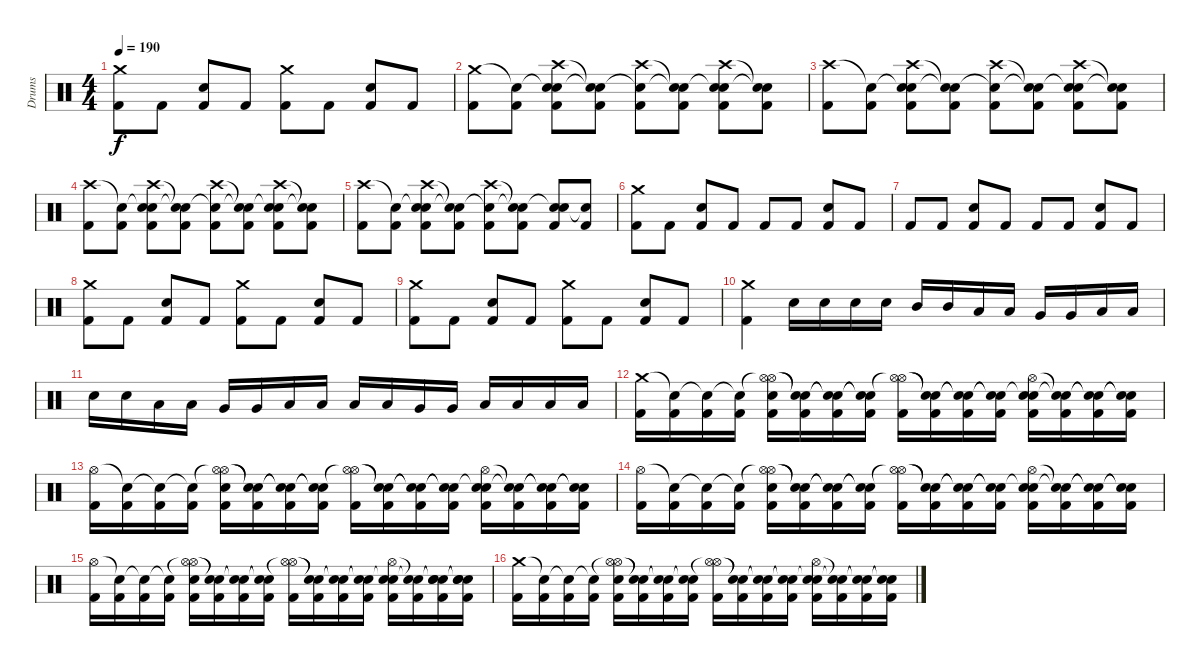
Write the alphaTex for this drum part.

\track ("Drums" "Drums") {instrument percussion}
\staff {score}
\articulation defaults
\ts (4 4)
\tempo 190
\clef neutral
\ks c
("Crash medium (hit)" "Kick (hit) 2").8{dy f} "Kick (hit) 2".8 ("Electric Snare (hit)" "Kick (hit) 2").8 "Kick (hit) 2".8 ("Crash medium (hit)" "Kick (hit) 2").8 "Kick (hit) 2".8 ("Electric Snare (hit)" "Kick (hit) 2").8 "Kick (hit) 2".8 |
("Crash medium (hit)" "Kick (hit) 2").8 ("Snare (hit)"{t} "Kick (hit) 2").8 ("Snare (hit)"{t} "Crash high (hit)" "Electric Snare (hit)" "Kick (hit) 2").8 ("Snare (hit)"{t} "Snare (hit)"{t} "Kick (hit) 2").8 ("Crash high (hit)" "Snare (hit)"{t} "Kick (hit) 2").8 ("Snare (hit)"{t} "Snare (hit)"{t} "Kick (hit) 2").8 ("Snare (hit)"{t} "Crash high (hit)" "Electric Snare (hit)" "Kick (hit) 2").8 ("Snare (hit)"{t} "Snare (hit)"{t} "Kick (hit) 2").8 |
("Crash high (hit)" "Kick (hit) 2").8 ("Snare (hit)"{t} "Kick (hit) 2").8 ("Snare (hit)"{t} "Crash high (hit)" "Electric Snare (hit)" "Kick (hit) 2").8 ("Snare (hit)"{t} "Snare (hit)"{t} "Kick (hit) 2").8 ("Crash high (hit)" "Snare (hit)"{t} "Kick (hit) 2").8 ("Snare (hit)"{t} "Snare (hit)"{t} "Kick (hit) 2").8 ("Snare (hit)"{t} "Crash high (hit)" "Electric Snare (hit)" "Kick (hit) 2").8 ("Snare (hit)"{t} "Snare (hit)"{t} "Kick (hit) 2").8 |
("Crash high (hit)" "Kick (hit) 2").8 ("Snare (hit)"{t} "Kick (hit) 2").8 ("Snare (hit)"{t} "Crash high (hit)" "Electric Snare (hit)" "Kick (hit) 2").8 ("Snare (hit)"{t} "Snare (hit)"{t} "Kick (hit) 2").8 ("Crash high (hit)" "Snare (hit)"{t} "Kick (hit) 2").8 ("Snare (hit)"{t} "Snare (hit)"{t} "Kick (hit) 2").8 ("Snare (hit)"{t} "Crash high (hit)" "Electric Snare (hit)" "Kick (hit) 2").8 ("Snare (hit)"{t} "Snare (hit)"{t} "Kick (hit) 2").8 |
("Crash high (hit)" "Kick (hit) 2").8 ("Snare (hit)"{t} "Kick (hit) 2").8 ("Snare (hit)"{t} "Crash high (hit)" "Electric Snare (hit)" "Kick (hit) 2").8 ("Snare (hit)"{t} "Snare (hit)"{t} "Kick (hit) 2").8 ("Crash high (hit)" "Snare (hit)"{t} "Kick (hit) 2").8 ("Snare (hit)"{t} "Snare (hit)"{t} "Kick (hit) 2").8 ("Snare (hit)"{t} "Electric Snare (hit)" "Kick (hit) 2").8 ("Snare (hit)"{t} "Kick (hit) 2").8 |
("Crash medium (hit)" "Kick (hit) 2").8 "Kick (hit) 2".8 ("Electric Snare (hit)" "Kick (hit) 2").8 "Kick (hit) 2".8 "Kick (hit) 2".8 "Kick (hit) 2".8 ("Electric Snare (hit)" "Kick (hit) 2").8 "Kick (hit) 2".8 |
"Kick (hit) 2".8 "Kick (hit) 2".8 ("Electric Snare (hit)" "Kick (hit) 2").8 "Kick (hit) 2".8 "Kick (hit) 2".8 "Kick (hit) 2".8 ("Electric Snare (hit)" "Kick (hit) 2").8 "Kick (hit) 2".8 |
("Crash medium (hit)" "Kick (hit) 2").8 "Kick (hit) 2".8 ("Electric Snare (hit)" "Kick (hit) 2").8 "Kick (hit) 2".8 ("Crash medium (hit)" "Kick (hit) 2").8 "Kick (hit) 2".8 ("Electric Snare (hit)" "Kick (hit) 2").8 "Kick (hit) 2".8 |
("Crash medium (hit)" "Kick (hit) 2").8 "Kick (hit) 2".8 ("Electric Snare (hit)" "Kick (hit) 2").8 "Kick (hit) 2".8 ("Crash medium (hit)" "Kick (hit) 2").8 "Kick (hit) 2".8 ("Electric Snare (hit)" "Kick (hit) 2").8 "Kick (hit) 2".8 |
("Crash medium (hit)" "Kick (hit) 2").4 "Electric Snare (hit)".16 "Electric Snare (hit)".16 "Electric Snare (hit)".16 "Electric Snare (hit)".16 "Mid Tom (hit)".16 "Mid Tom (hit)".16 "Low Tom (hit)".16 "Low Tom (hit)".16 "Very Low Tom (hit)".16 "Very Low Tom (hit)".16 "Low Floor Tom (hit)".16 "Low Floor Tom (hit)".16 |
"Electric Snare (hit)".16 "Electric Snare (hit)".16 "Low Tom (hit)".16 "Low Tom (hit)".16 "Very Low Tom (hit)".16 "Very Low Tom (hit)".16 "Low Floor Tom (hit)".16 "Low Floor Tom (hit)".16 "Low Tom (hit)".16 "Low Tom (hit)".16 "Very Low Tom (hit)".16 "Very Low Tom (hit)".16 "Low Tom (hit)".16 "Low Tom (hit)".16 "Low Floor Tom (hit)".16 "Low Floor Tom (hit)".16 |
("Crash medium (hit)" "Kick (hit) 2").16 ("Snare (hit)"{t} "Kick (hit) 2").16 ("Snare (hit)"{t} "Kick (hit) 2").16 ("Snare (hit)"{t} "Kick (hit) 2").16 ("Hi-Hat (open)"{t} "Hi-Hat (open)" "Electric Snare (hit)" "Kick (hit) 2").16 ("Snare (hit)"{t} "Snare (hit)"{t} "Kick (hit) 2").16 ("Snare (hit)"{t} "Snare (hit)"{t} "Kick (hit) 2").16 ("Snare (hit)"{t} "Snare (hit)"{t} "Kick (hit) 2").16 ("Hi-Hat (open)" "Hi-Hat (open)"{t} "Kick (hit) 2").16 ("Snare (hit)"{t} "Snare (hit)"{t} "Kick (hit) 2").16 ("Snare (hit)"{t} "Snare (hit)"{t} "Kick (hit) 2").16 ("Snare (hit)"{t} "Snare (hit)"{t} "Kick (hit) 2").16 ("Snare (hit)"{t} "Hi-Hat (open)" "Electric Snare (hit)" "Kick (hit) 2").16 ("Snare (hit)"{t} "Snare (hit)"{t} "Kick (hit) 2").16 ("Snare (hit)"{t} "Snare (hit)"{t} "Kick (hit) 2").16 ("Snare (hit)"{t} "Snare (hit)"{t} "Kick (hit) 2").16 |
("Hi-Hat (open)" "Kick (hit) 2").16 ("Snare (hit)"{t} "Kick (hit) 2").16 ("Snare (hit)"{t} "Kick (hit) 2").16 ("Snare (hit)"{t} "Kick (hit) 2").16 ("Hi-Hat (open)"{t} "Hi-Hat (open)" "Electric Snare (hit)" "Kick (hit) 2").16 ("Snare (hit)"{t} "Snare (hit)"{t} "Kick (hit) 2").16 ("Snare (hit)"{t} "Snare (hit)"{t} "Kick (hit) 2").16 ("Snare (hit)"{t} "Snare (hit)"{t} "Kick (hit) 2").16 ("Hi-Hat (open)" "Hi-Hat (open)"{t} "Kick (hit) 2").16 ("Snare (hit)"{t} "Snare (hit)"{t} "Kick (hit) 2").16 ("Snare (hit)"{t} "Snare (hit)"{t} "Kick (hit) 2").16 ("Snare (hit)"{t} "Snare (hit)"{t} "Kick (hit) 2").16 ("Snare (hit)"{t} "Hi-Hat (open)" "Electric Snare (hit)" "Kick (hit) 2").16 ("Snare (hit)"{t} "Snare (hit)"{t} "Kick (hit) 2").16 ("Snare (hit)"{t} "Snare (hit)"{t} "Kick (hit) 2").16 ("Snare (hit)"{t} "Snare (hit)"{t} "Kick (hit) 2").16 |
("Hi-Hat (open)" "Kick (hit) 2").16 ("Snare (hit)"{t} "Kick (hit) 2").16 ("Snare (hit)"{t} "Kick (hit) 2").16 ("Snare (hit)"{t} "Kick (hit) 2").16 ("Hi-Hat (open)"{t} "Hi-Hat (open)" "Electric Snare (hit)" "Kick (hit) 2").16 ("Snare (hit)"{t} "Snare (hit)"{t} "Kick (hit) 2").16 ("Snare (hit)"{t} "Snare (hit)"{t} "Kick (hit) 2").16 ("Snare (hit)"{t} "Snare (hit)"{t} "Kick (hit) 2").16 ("Hi-Hat (open)" "Hi-Hat (open)"{t} "Kick (hit) 2").16 ("Snare (hit)"{t} "Snare (hit)"{t} "Kick (hit) 2").16 ("Snare (hit)"{t} "Snare (hit)"{t} "Kick (hit) 2").16 ("Snare (hit)"{t} "Snare (hit)"{t} "Kick (hit) 2").16 ("Snare (hit)"{t} "Hi-Hat (open)" "Electric Snare (hit)" "Kick (hit) 2").16 ("Snare (hit)"{t} "Snare (hit)"{t} "Kick (hit) 2").16 ("Snare (hit)"{t} "Snare (hit)"{t} "Kick (hit) 2").16 ("Snare (hit)"{t} "Snare (hit)"{t} "Kick (hit) 2").16 |
("Hi-Hat (open)" "Kick (hit) 2").16 ("Snare (hit)"{t} "Kick (hit) 2").16 ("Snare (hit)"{t} "Kick (hit) 2").16 ("Snare (hit)"{t} "Kick (hit) 2").16 ("Hi-Hat (open)"{t} "Hi-Hat (open)" "Electric Snare (hit)" "Kick (hit) 2").16 ("Snare (hit)"{t} "Snare (hit)"{t} "Kick (hit) 2").16 ("Snare (hit)"{t} "Snare (hit)"{t} "Kick (hit) 2").16 ("Snare (hit)"{t} "Snare (hit)"{t} "Kick (hit) 2").16 ("Hi-Hat (open)" "Hi-Hat (open)"{t} "Kick (hit) 2").16 ("Snare (hit)"{t} "Snare (hit)"{t} "Kick (hit) 2").16 ("Snare (hit)"{t} "Snare (hit)"{t} "Kick (hit) 2").16 ("Snare (hit)"{t} "Snare (hit)"{t} "Kick (hit) 2").16 ("Snare (hit)"{t} "Hi-Hat (open)" "Electric Snare (hit)" "Kick (hit) 2").16 ("Snare (hit)"{t} "Snare (hit)"{t} "Kick (hit) 2").16 ("Snare (hit)"{t} "Snare (hit)"{t} "Electric Snare (hit)" "Kick (hit) 2").16 ("Snare (hit)"{t} "Snare (hit)"{t} "Electric Snare (hit)" "Kick (hit) 2").16 |
("Crash medium (hit)" "Kick (hit) 2").16 ("Snare (hit)"{t} "Kick (hit) 2").16 ("Snare (hit)"{t} "Kick (hit) 2").16 ("Snare (hit)"{t} "Kick (hit) 2").16 ("Hi-Hat (open)"{t} "Hi-Hat (open)" "Electric Snare (hit)" "Kick (hit) 2").16 ("Snare (hit)"{t} "Snare (hit)"{t} "Kick (hit) 2").16 ("Snare (hit)"{t} "Snare (hit)"{t} "Kick (hit) 2").16 ("Snare (hit)"{t} "Snare (hit)"{t} "Kick (hit) 2").16 ("Hi-Hat (open)" "Hi-Hat (open)"{t} "Kick (hit) 2").16 ("Snare (hit)"{t} "Snare (hit)"{t} "Kick (hit) 2").16 ("Snare (hit)"{t} "Snare (hit)"{t} "Kick (hit) 2").16 ("Snare (hit)"{t} "Snare (hit)"{t} "Kick (hit) 2").16 ("Snare (hit)"{t} "Hi-Hat (open)" "Electric Snare (hit)" "Kick (hit) 2").16 ("Snare (hit)"{t} "Snare (hit)"{t} "Kick (hit) 2").16 ("Snare (hit)"{t} "Snare (hit)"{t} "Kick (hit) 2").16 ("Snare (hit)"{t} "Snare (hit)"{t} "Kick (hit) 2").16
